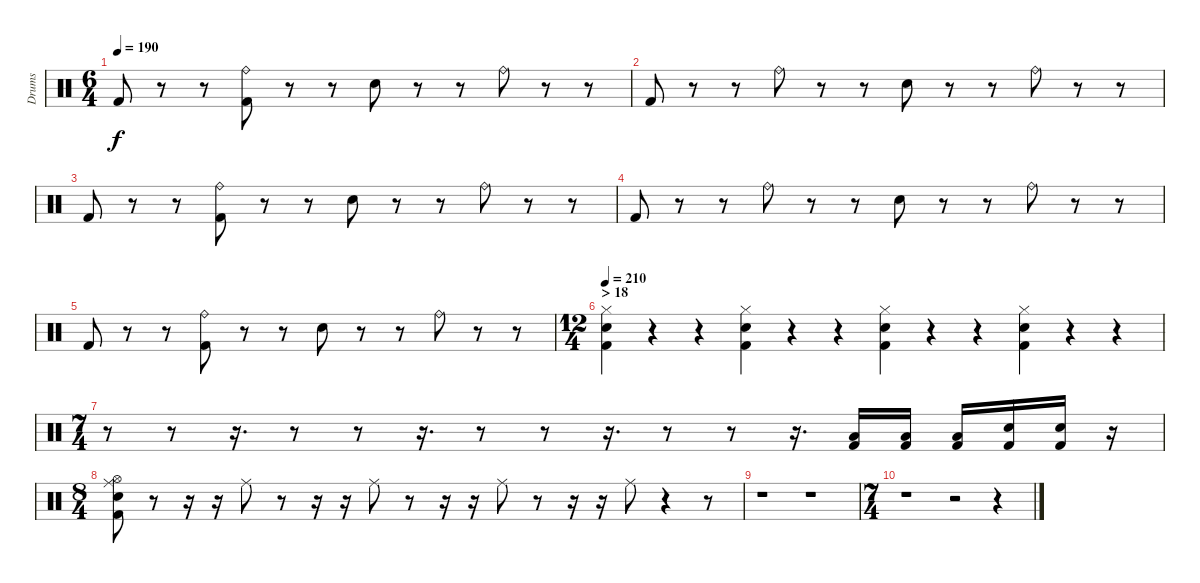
\track ("Drums" "Drums") {instrument percussion}
\staff {score}
\articulation defaults
\ts (6 4)
\tempo 190
\clef neutral
\ks c "Kick (hit) 2".8{dy f}
r.8 r.8 ("Ride (bell)" "Kick (hit) 2").8 r.8 r.8 "Electric Snare (hit)".8 r.8 r.8 "Ride (bell)".8 r.8 r.8 |
"Kick (hit) 2".8 r.8 r.8 "Ride (bell)".8 r.8 r.8 "Electric Snare (hit)".8 r.8 r.8 "Ride (bell)".8 r.8 r.8 |
"Kick (hit) 2".8 r.8 r.8 ("Ride (bell)" "Kick (hit) 2").8 r.8 r.8 "Electric Snare (hit)".8 r.8 r.8 "Ride (bell)".8 r.8 r.8 |
"Kick (hit) 2".8 r.8 r.8 "Ride (bell)".8 r.8 r.8 "Electric Snare (hit)".8 r.8 r.8 "Ride (bell)".8 r.8 r.8 |
"Kick (hit) 2".8 r.8 r.8 ("Ride (bell)" "Kick (hit) 2").8 r.8 r.8 "Electric Snare (hit)".8 r.8 r.8 "Ride (bell)".8 r.8 r.8 |
\ts (12 4)
\section ("" "> 18")
\tempo 210
("Hi-Hat (closed)" "Electric Snare (hit)" "Kick (hit) 2").4 r.4 r.4 ("Hi-Hat (closed)" "Electric Snare (hit)" "Kick (hit) 2").4 r.4 r.4 ("Hi-Hat (closed)" "Electric Snare (hit)" "Kick (hit) 2").4 r.4 r.4 ("Hi-Hat (closed)" "Electric Snare (hit)" "Kick (hit) 2").4 r.4 r.4 |
\ts (7 4)
r.8 r.8 r.16{d} r.8 r.8 r.16{d} r.8 r.8 r.16{d} r.8 r.8 r.16{d} ("Low Tom (hit)" "Kick (hit) 2").16 ("Low Floor Tom (hit)" "Kick (hit) 2").16 ("Low Tom (hit)" "Kick (hit) 2").16 ("Electric Snare (hit)" "Kick (hit) 2").16 ("Electric Snare (hit)" "Kick (hit) 2").16 r.16 |
\ts (8 4)
("Hi-Hat (open)" "Electric Snare (hit)" "Kick (hit) 2" "Ride (middle)").8 r.8 r.16 r.16 "Ride (middle)".8 r.8 r.16 r.16 "Ride (middle)".8 r.8 r.16 r.16 "Ride (middle)".8 r.8 r.16 r.16 "Ride (middle)".8 r.4 r.8 |
r.1 r.1 |
\ts (7 4)
r.1 r.2 r.4
